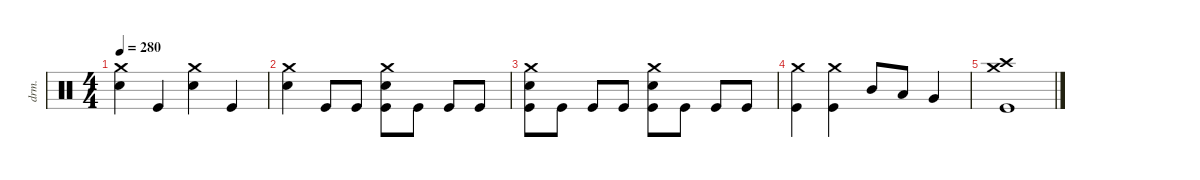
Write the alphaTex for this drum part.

\defaultSystemsLayout 4
\hideDynamics
\bracketExtendMode nobrackets
\otherSystemsTrackNameOrientation horizontal
\track ("Nick Menza" "drm.") {instrument percussion}
\staff {score}
\articulation defaults
\ts (4 4)
\tempo 280
\clef neutral
\ks c
("Crash medium (hit)" "Snare (hit) 2").4{dy f beam Down} "Kick (hit)".4{beam Up} ("Crash medium (hit)" "Snare (hit) 2").4{beam Down} "Kick (hit)".4{beam Up} |
("Crash medium (hit)" "Snare (hit) 2").4{beam Down} "Kick (hit)".8{beam Up} "Kick (hit)".8{beam Up} ("Crash medium (hit)" "Snare (hit) 2" "Kick (hit)").8{beam Down} "Kick (hit)".8{beam Down} "Kick (hit)".8{beam Up} "Kick (hit)".8{beam Up} |
("Crash medium (hit)" "Snare (hit) 2" "Kick (hit)").8{beam Down} "Kick (hit)".8{beam Down} "Kick (hit)".8{beam Up} "Kick (hit)".8{beam Up} ("Crash medium (hit)" "Snare (hit) 2" "Kick (hit)").8{beam Down} "Kick (hit)".8{beam Down} "Kick (hit)".8{beam Up} "Kick (hit)".8{beam Up} |
("Crash medium (hit)" "Kick (hit)").4{beam Down} ("Crash medium (hit)" "Kick (hit)").4{beam Down} "Mid Tom (hit)".8{beam Up} "Low Tom (hit)".8{beam Up} "Very Low Tom (hit)".4{beam Up} |
("Crash high (hit)" "Crash medium (hit)" "Kick (hit)").1{dy mf beam Down}
